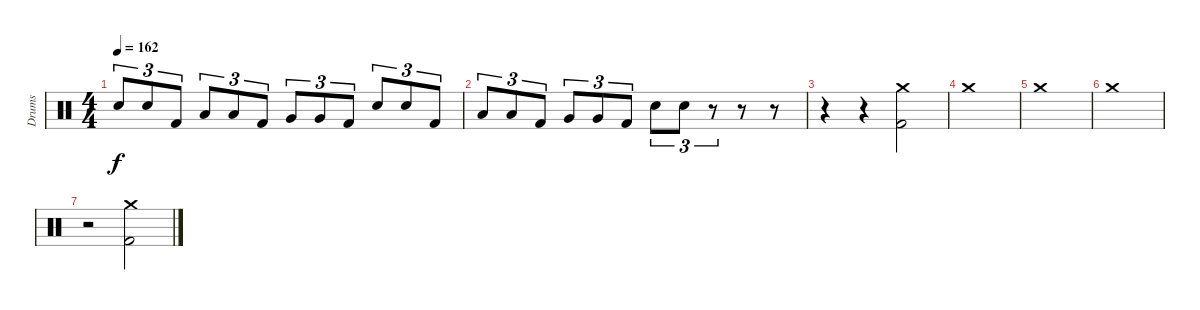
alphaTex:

\track ("Drums" "Drums") {instrument percussion}
\staff {score}
\articulation defaults
\ts (4 4)
\tempo 162
\clef neutral
\ks c "Snare (hit) 2".8{tu (3 2) dy f} "Snare (hit) 2".8{tu (3 2)} "Kick (hit) 2".8{tu (3 2)} "Low Tom (hit)".8{tu (3 2)} "Low Tom (hit)".8{tu (3 2)} "Kick (hit) 2".8{tu (3 2)} "Very Low Tom (hit)".8{tu (3 2)} "Very Low Tom (hit)".8{tu (3 2)} "Kick (hit) 2".8{tu (3 2)} "Snare (hit) 2".8{tu (3 2)} "Snare (hit) 2".8{tu (3 2)} "Kick (hit) 2".8{tu (3 2)}
|
"Low Tom (hit)".8{tu (3 2)} "Low Tom (hit)".8{tu (3 2)} "Kick (hit) 2".8{tu (3 2)} "Very Low Tom (hit)".8{tu (3 2)} "Very Low Tom (hit)".8{tu (3 2)} "Kick (hit) 2".8{tu (3 2)} "Snare (hit) 2".8{tu (3 2)} "Snare (hit) 2".8{tu (3 2)} r.8{tu (3 2)} r.8 r.8 |
r.4 r.4 ("Crash medium (hit)" "Kick (hit) 2").2 |
"Crash medium (hit)".1 |
"Crash medium (hit)".1 |
"Crash medium (hit)".1 |
r.2 ("Crash medium (hit)" "Kick (hit) 2").2
